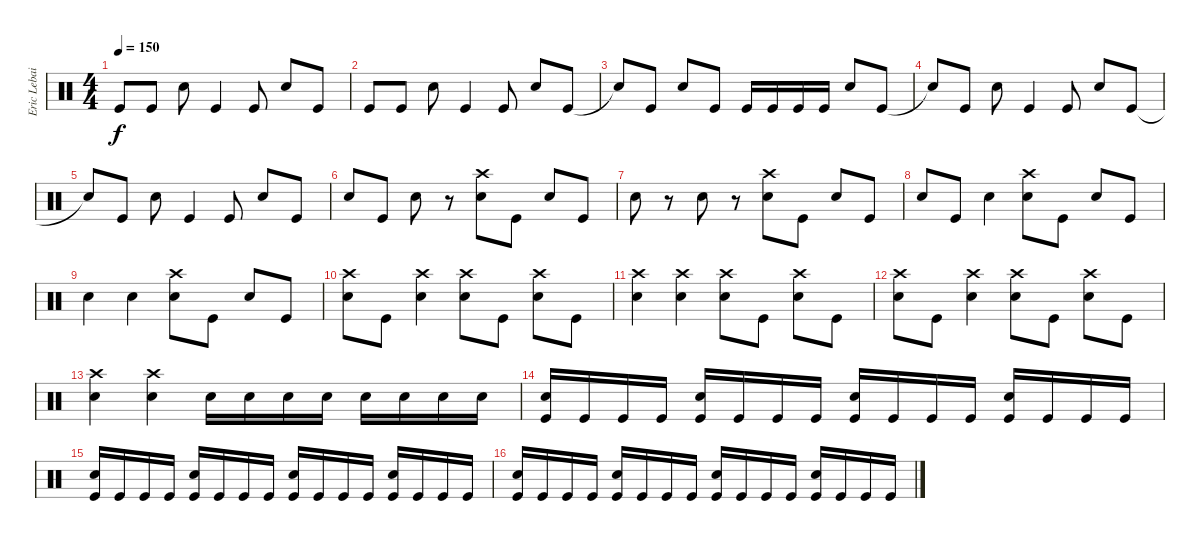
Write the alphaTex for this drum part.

\track ("Eric Lebailly - Drums" "Eric Lebai") {instrument percussion}
\staff {score}
\articulation defaults
\ts (4 4)
\tempo 150
\clef neutral
\ks c "Kick (hit)"{t}.8{dy f} "Kick (hit)".8 "Snare (hit) 2".8 "Kick (hit)".4 "Kick (hit)".8 "Snare (hit) 2".8 "Kick (hit)".8
|
"Kick (hit)".8 "Kick (hit)".8 "Snare (hit) 2".8 "Kick (hit)".4 "Kick (hit)".8 "Snare (hit) 2".8 "Kick (hit)".8 |
"Snare (hit)"{t}.8 "Kick (hit)".8 "Snare (hit) 2".8 "Kick (hit)".8 "Kick (hit)".16 "Kick (hit)".16 "Kick (hit)".16 "Kick (hit)".16 "Snare (hit) 2".8 "Kick (hit)".8 |
"Snare (hit)"{t}.8 "Kick (hit)".8 "Snare (hit) 2".8 "Kick (hit)".4 "Kick (hit)".8 "Snare (hit) 2".8 "Kick (hit)".8 |
"Snare (hit)"{t}.8 "Kick (hit)".8 "Snare (hit) 2".8 "Kick (hit)".4 "Kick (hit)".8 "Snare (hit) 2".8 "Kick (hit)".8 |
"Snare (hit) 2".8 "Kick (hit)".8 "Snare (hit) 2".8 r.8 ("Crash high (hit)" "Snare (hit) 2").8 "Kick (hit)".8 "Snare (hit) 2".8 "Kick (hit)".8 |
"Snare (hit) 2".8 r.8 "Snare (hit) 2".8 r.8 ("Crash high (hit)" "Snare (hit) 2").8 "Kick (hit)".8 "Snare (hit) 2".8 "Kick (hit)".8 |
"Snare (hit) 2".8 "Kick (hit)".8 "Snare (hit) 2".4 ("Crash high (hit)" "Snare (hit) 2").8 "Kick (hit)".8 "Snare (hit) 2".8 "Kick (hit)".8 |
"Snare (hit) 2".4 "Snare (hit) 2".4 ("Crash high (hit)" "Snare (hit) 2").8 "Kick (hit)".8 "Snare (hit) 2".8 "Kick (hit)".8 |
("Crash high (hit)" "Snare (hit) 2").8 "Kick (hit)".8 ("Crash high (hit)" "Snare (hit) 2").4 ("Crash high (hit)" "Snare (hit) 2").8 "Kick (hit)".8 ("Crash high (hit)" "Snare (hit) 2").8 "Kick (hit)".8 |
("Crash high (hit)" "Snare (hit) 2").4 ("Crash high (hit)" "Snare (hit) 2").4 ("Crash high (hit)" "Snare (hit) 2").8 "Kick (hit)".8 ("Crash high (hit)" "Snare (hit) 2").8 "Kick (hit)".8 |
("Crash high (hit)" "Snare (hit) 2").8 "Kick (hit)".8 ("Crash high (hit)" "Snare (hit) 2").4 ("Crash high (hit)" "Snare (hit) 2").8 "Kick (hit)".8 ("Crash high (hit)" "Snare (hit) 2").8 "Kick (hit)".8 |
("Crash high (hit)" "Snare (hit) 2").4 ("Crash high (hit)" "Snare (hit) 2").4 "Snare (hit) 2".16 "Snare (hit) 2".16 "Snare (hit) 2".16 "Snare (hit) 2".16 "Snare (hit) 2".16 "Snare (hit) 2".16 "Snare (hit) 2".16 "Snare (hit) 2".16 |
("Snare (hit) 2" "Kick (hit)").16 "Kick (hit)".16 "Kick (hit)".16 "Kick (hit)".16 ("Snare (hit) 2" "Kick (hit)").16 "Kick (hit)".16 "Kick (hit)".16 "Kick (hit)".16 ("Snare (hit) 2" "Kick (hit)").16 "Kick (hit)".16 "Kick (hit)".16 "Kick (hit)".16 ("Snare (hit) 2" "Kick (hit)").16 "Kick (hit)".16 "Kick (hit)".16 "Kick (hit)".16 |
("Snare (hit) 2" "Kick (hit)").16 "Kick (hit)".16 "Kick (hit)".16 "Kick (hit)".16 ("Snare (hit) 2" "Kick (hit)").16 "Kick (hit)".16 "Kick (hit)".16 "Kick (hit)".16 ("Snare (hit) 2" "Kick (hit)").16 "Kick (hit)".16 "Kick (hit)".16 "Kick (hit)".16 ("Snare (hit) 2" "Kick (hit)").16 "Kick (hit)".16 "Kick (hit)".16 "Kick (hit)".16 |
("Snare (hit) 2" "Kick (hit)").16 "Kick (hit)".16 "Kick (hit)".16 "Kick (hit)".16 ("Snare (hit) 2" "Kick (hit)").16 "Kick (hit)".16 "Kick (hit)".16 "Kick (hit)".16 ("Snare (hit) 2" "Kick (hit)").16 "Kick (hit)".16 "Kick (hit)".16 "Kick (hit)".16 ("Snare (hit) 2" "Kick (hit)").16 "Kick (hit)".16 "Kick (hit)".16 "Kick (hit)".16
